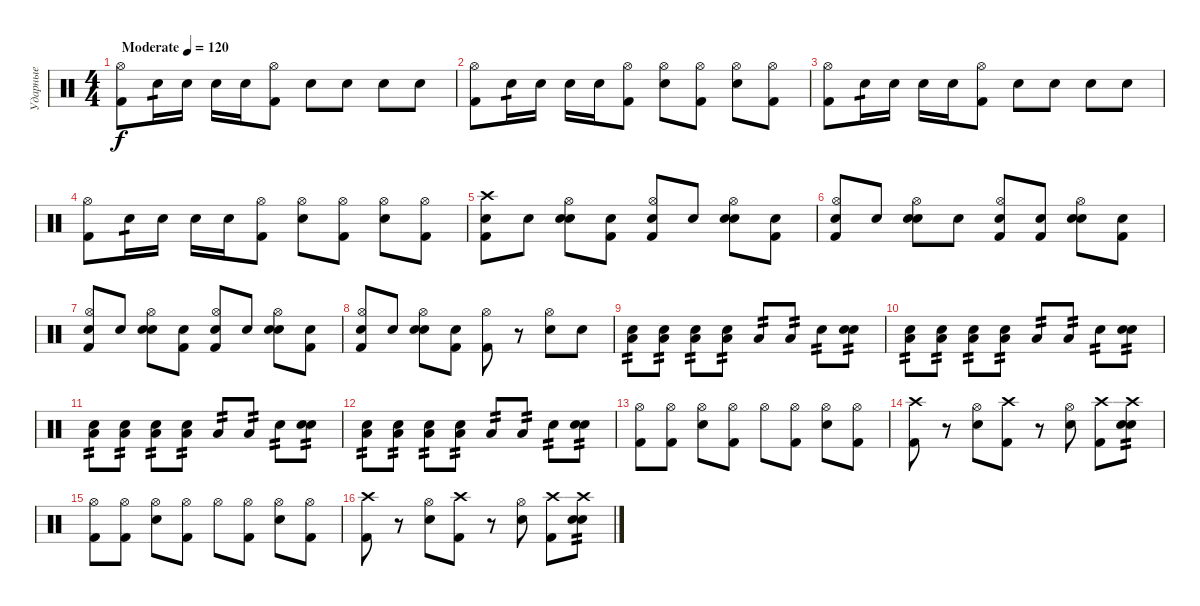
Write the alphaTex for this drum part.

\track ("Ударные" "Ударные") {instrument percussion}
\staff {score}
\articulation defaults
\ts (4 4)
\tempo (120 "Moderate")
\clef neutral
\ks c
("Kick (hit) 2" "Hi-Hat (open)").8{dy f} "Electric Snare (hit)".16{tp 1} "Electric Snare (hit)".16 "Electric Snare (hit)".16 "Electric Snare (hit)".16 ("Kick (hit) 2" "Hi-Hat (open)").8 "Snare (hit)".8 "Snare (hit)".8 "Snare (hit)".8 "Snare (hit)".8 |
("Kick (hit) 2" "Hi-Hat (open)").8 "Electric Snare (hit)".16{tp 1} "Electric Snare (hit)".16 "Electric Snare (hit)".16 "Electric Snare (hit)".16 ("Kick (hit) 2" "Hi-Hat (open)").8 ("Hi-Hat (open)" "Electric Snare (hit)").8 ("Hi-Hat (open)" "Kick (hit) 2").8 ("Hi-Hat (open)" "Electric Snare (hit)").8 ("Hi-Hat (open)" "Kick (hit) 2").8 |
("Kick (hit) 2" "Hi-Hat (open)").8 "Electric Snare (hit)".16{tp 1} "Electric Snare (hit)".16 "Electric Snare (hit)".16 "Electric Snare (hit)".16 ("Kick (hit) 2" "Hi-Hat (open)").8 "Snare (hit)".8 "Snare (hit)".8 "Snare (hit)".8 "Snare (hit)".8 |
("Kick (hit) 2" "Hi-Hat (open)").8 "Electric Snare (hit)".16{tp 1} "Electric Snare (hit)".16 "Electric Snare (hit)".16 "Electric Snare (hit)".16 ("Kick (hit) 2" "Hi-Hat (open)").8 ("Hi-Hat (open)" "Electric Snare (hit)").8 ("Hi-Hat (open)" "Kick (hit) 2").8 ("Hi-Hat (open)" "Electric Snare (hit)").8 ("Hi-Hat (open)" "Kick (hit) 2").8 |
("Crash high (hit)" "Kick (hit) 2" "Snare (hit)").8 "Snare (hit)".8 ("Hi-Hat (open)" "Electric Snare (hit)" "Snare (hit)").8 ("Kick (hit) 2" "Snare (hit)").8 ("Hi-Hat (open)" "Kick (hit) 2" "Snare (hit)").8 "Snare (hit)".8 ("Hi-Hat (open)" "Electric Snare (hit)" "Snare (hit)").8 ("Kick (hit) 2" "Snare (hit)").8 |
("Hi-Hat (open)" "Kick (hit) 2" "Snare (hit)").8 "Snare (hit)".8 ("Hi-Hat (open)" "Electric Snare (hit)" "Snare (hit)").8 "Snare (hit)".8 ("Hi-Hat (open)" "Kick (hit) 2" "Snare (hit)").8 ("Kick (hit) 2" "Snare (hit)").8 ("Hi-Hat (open)" "Electric Snare (hit)" "Snare (hit)").8 ("Kick (hit) 2" "Snare (hit)").8 |
("Hi-Hat (open)" "Kick (hit) 2" "Snare (hit)").8 "Snare (hit)".8 ("Hi-Hat (open)" "Electric Snare (hit)" "Snare (hit)").8 ("Kick (hit) 2" "Snare (hit)").8 ("Hi-Hat (open)" "Kick (hit) 2" "Snare (hit)").8 "Snare (hit)".8 ("Hi-Hat (open)" "Electric Snare (hit)" "Snare (hit)").8 ("Kick (hit) 2" "Snare (hit)").8 |
("Hi-Hat (open)" "Kick (hit) 2" "Snare (hit)").8 "Snare (hit)".8 ("Hi-Hat (open)" "Electric Snare (hit)" "Snare (hit)").8 ("Kick (hit) 2" "Snare (hit)").8 ("Hi-Hat (open)" "Kick (hit) 2").8 r.8 ("Hi-Hat (open)" "Electric Snare (hit)").8 "Snare (hit)".8 |
("Low Floor Tom (hit)" "Snare (hit)").8{tp 2} ("Low Tom (hit)" "Snare (hit)").8{tp 2} ("Low Floor Tom (hit)" "Snare (hit)").8{tp 2} ("Low Tom (hit)" "Snare (hit)").8{tp 2} "Low Tom (hit)".8{tp 2} "Low Tom (hit)".8{tp 2} "Electric Snare (hit)".8{tp 2} ("Electric Snare (hit)" "Snare (hit)").8{tp 2} |
("Low Floor Tom (hit)" "Snare (hit)").8{tp 2} ("Low Tom (hit)" "Snare (hit)").8{tp 2} ("Low Floor Tom (hit)" "Snare (hit)").8{tp 2} ("Low Tom (hit)" "Snare (hit)").8{tp 2} "Low Tom (hit)".8{tp 2} "Low Tom (hit)".8{tp 2} "Electric Snare (hit)".8{tp 2} ("Electric Snare (hit)" "Snare (hit)").8{tp 2} |
("Low Floor Tom (hit)" "Snare (hit)").8{tp 2} ("Low Tom (hit)" "Snare (hit)").8{tp 2} ("Low Floor Tom (hit)" "Snare (hit)").8{tp 2} ("Low Tom (hit)" "Snare (hit)").8{tp 2} "Low Tom (hit)".8{tp 2} "Low Tom (hit)".8{tp 2} "Electric Snare (hit)".8{tp 2} ("Electric Snare (hit)" "Snare (hit)").8{tp 2} |
("Low Floor Tom (hit)" "Snare (hit)").8{tp 2} ("Low Tom (hit)" "Snare (hit)").8{tp 2} ("Low Floor Tom (hit)" "Snare (hit)").8{tp 2} ("Low Tom (hit)" "Snare (hit)").8{tp 2} "Low Tom (hit)".8{tp 2} "Low Tom (hit)".8{tp 2} "Electric Snare (hit)".8{tp 2} ("Electric Snare (hit)" "Snare (hit)").8{tp 2} |
("Hi-Hat (open)" "Kick (hit) 2").8 ("Hi-Hat (open)" "Kick (hit) 2").8 ("Hi-Hat (open)" "Electric Snare (hit)").8 ("Hi-Hat (open)" "Kick (hit) 2").8 "Hi-Hat (open)".8 ("Hi-Hat (open)" "Kick (hit) 2").8 ("Hi-Hat (open)" "Electric Snare (hit)").8 ("Hi-Hat (open)" "Kick (hit) 2").8 |
("Crash high (hit)" "Kick (hit) 2").8 r.8 ("Hi-Hat (open)" "Electric Snare (hit)").8 ("Crash high (hit)" "Kick (hit) 2").8 r.8 ("Hi-Hat (open)" "Electric Snare (hit)").8 ("Crash high (hit)" "Kick (hit) 2").8 ("Crash high (hit)" "Electric Snare (hit)" "Snare (hit)").8{tp 2} |
("Hi-Hat (open)" "Kick (hit) 2").8 ("Hi-Hat (open)" "Kick (hit) 2").8 ("Hi-Hat (open)" "Electric Snare (hit)").8 ("Hi-Hat (open)" "Kick (hit) 2").8 "Hi-Hat (open)".8 ("Hi-Hat (open)" "Kick (hit) 2").8 ("Hi-Hat (open)" "Electric Snare (hit)").8 ("Hi-Hat (open)" "Kick (hit) 2").8 |
("Crash high (hit)" "Kick (hit) 2").8 r.8 ("Hi-Hat (open)" "Electric Snare (hit)").8 ("Crash high (hit)" "Kick (hit) 2").8 r.8 ("Hi-Hat (open)" "Electric Snare (hit)").8 ("Crash high (hit)" "Kick (hit) 2").8 ("Crash high (hit)" "Electric Snare (hit)" "Snare (hit)").8{tp 2}
